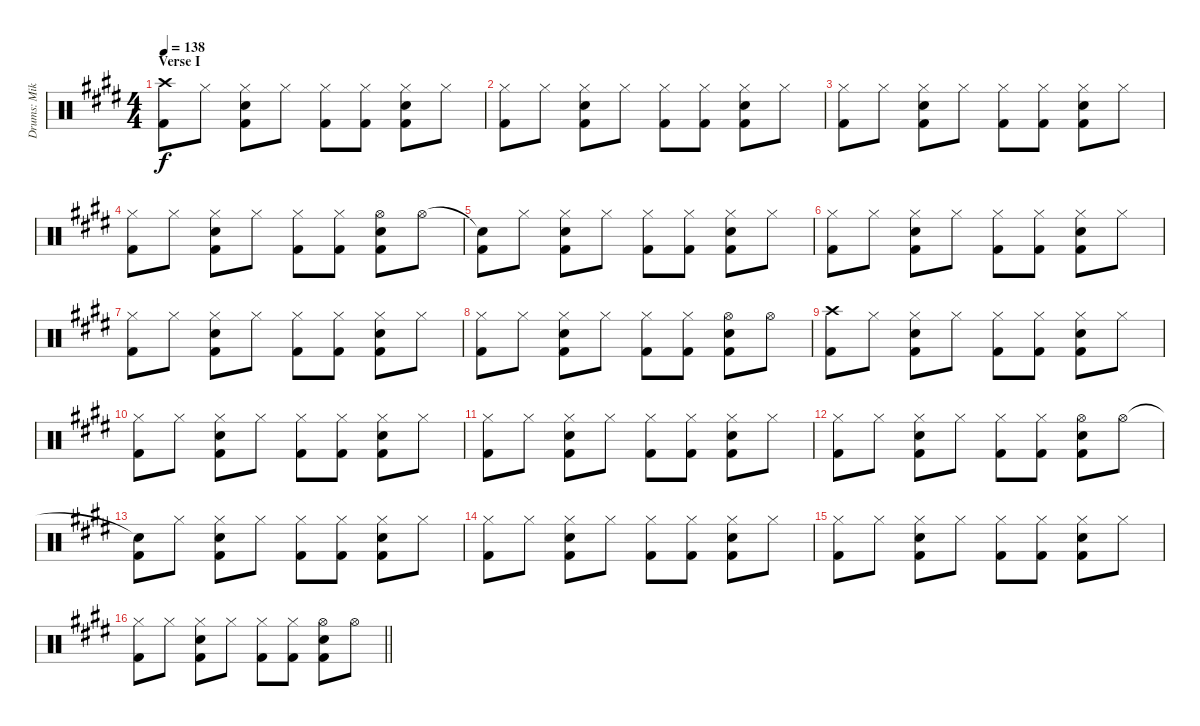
\track ("Drums: Mike" "Drums: Mik") {instrument percussion}
\staff {score}
\articulation defaults
\ts (4 4)
\section ("" "Verse I")
\tempo 138
\clef neutral
\ks e
("Crash high (hit)" "Kick (hit) 2").8{dy f} "Hi-Hat (closed)".8 ("Hi-Hat (closed)" "Electric Snare (hit)" "Kick (hit) 2").8 "Hi-Hat (closed)".8 ("Hi-Hat (closed)" "Kick (hit) 2").8 ("Hi-Hat (closed)" "Kick (hit) 2").8 ("Hi-Hat (closed)" "Electric Snare (hit)" "Kick (hit) 2").8 "Hi-Hat (closed)".8 |
("Hi-Hat (closed)" "Kick (hit) 2").8 "Hi-Hat (closed)".8 ("Hi-Hat (closed)" "Electric Snare (hit)" "Kick (hit) 2").8 "Hi-Hat (closed)".8 ("Hi-Hat (closed)" "Kick (hit) 2").8 ("Hi-Hat (closed)" "Kick (hit) 2").8 ("Hi-Hat (closed)" "Electric Snare (hit)" "Kick (hit) 2").8 "Hi-Hat (closed)".8 |
("Hi-Hat (closed)" "Kick (hit) 2").8 "Hi-Hat (closed)".8 ("Hi-Hat (closed)" "Electric Snare (hit)" "Kick (hit) 2").8 "Hi-Hat (closed)".8 ("Hi-Hat (closed)" "Kick (hit) 2").8 ("Hi-Hat (closed)" "Kick (hit) 2").8 ("Hi-Hat (closed)" "Electric Snare (hit)" "Kick (hit) 2").8 "Hi-Hat (closed)".8 |
("Hi-Hat (closed)" "Kick (hit) 2").8 "Hi-Hat (closed)".8 ("Hi-Hat (closed)" "Electric Snare (hit)" "Kick (hit) 2").8 "Hi-Hat (closed)".8 ("Hi-Hat (closed)" "Kick (hit) 2").8 ("Hi-Hat (closed)" "Kick (hit) 2").8 ("Hi-Hat (open)" "Electric Snare (hit)" "Kick (hit) 2").8 "Hi-Hat (open)".8 |
("Snare (hit)"{t} "Kick (hit) 2").8 "Hi-Hat (closed)".8 ("Hi-Hat (closed)" "Electric Snare (hit)" "Kick (hit) 2").8 "Hi-Hat (closed)".8 ("Hi-Hat (closed)" "Kick (hit) 2").8 ("Hi-Hat (closed)" "Kick (hit) 2").8 ("Hi-Hat (closed)" "Electric Snare (hit)" "Kick (hit) 2").8 "Hi-Hat (closed)".8 |
("Hi-Hat (closed)" "Kick (hit) 2").8 "Hi-Hat (closed)".8 ("Hi-Hat (closed)" "Electric Snare (hit)" "Kick (hit) 2").8 "Hi-Hat (closed)".8 ("Hi-Hat (closed)" "Kick (hit) 2").8 ("Hi-Hat (closed)" "Kick (hit) 2").8 ("Hi-Hat (closed)" "Electric Snare (hit)" "Kick (hit) 2").8 "Hi-Hat (closed)".8 |
("Hi-Hat (closed)" "Kick (hit) 2").8 "Hi-Hat (closed)".8 ("Hi-Hat (closed)" "Electric Snare (hit)" "Kick (hit) 2").8 "Hi-Hat (closed)".8 ("Hi-Hat (closed)" "Kick (hit) 2").8 ("Hi-Hat (closed)" "Kick (hit) 2").8 ("Hi-Hat (closed)" "Electric Snare (hit)" "Kick (hit) 2").8 "Hi-Hat (closed)".8 |
("Hi-Hat (closed)" "Kick (hit) 2").8 "Hi-Hat (closed)".8 ("Hi-Hat (closed)" "Electric Snare (hit)" "Kick (hit) 2").8 "Hi-Hat (closed)".8 ("Hi-Hat (closed)" "Kick (hit) 2").8 ("Hi-Hat (closed)" "Kick (hit) 2").8 ("Hi-Hat (open)" "Electric Snare (hit)" "Kick (hit) 2").8 "Hi-Hat (open)".8 |
("Crash high (hit)" "Kick (hit) 2").8 "Hi-Hat (closed)".8 ("Hi-Hat (closed)" "Electric Snare (hit)" "Kick (hit) 2").8 "Hi-Hat (closed)".8 ("Hi-Hat (closed)" "Kick (hit) 2").8 ("Hi-Hat (closed)" "Kick (hit) 2").8 ("Hi-Hat (closed)" "Electric Snare (hit)" "Kick (hit) 2").8 "Hi-Hat (closed)".8 |
("Hi-Hat (closed)" "Kick (hit) 2").8 "Hi-Hat (closed)".8 ("Hi-Hat (closed)" "Electric Snare (hit)" "Kick (hit) 2").8 "Hi-Hat (closed)".8 ("Hi-Hat (closed)" "Kick (hit) 2").8 ("Hi-Hat (closed)" "Kick (hit) 2").8 ("Hi-Hat (closed)" "Electric Snare (hit)" "Kick (hit) 2").8 "Hi-Hat (closed)".8 |
("Hi-Hat (closed)" "Kick (hit) 2").8 "Hi-Hat (closed)".8 ("Hi-Hat (closed)" "Electric Snare (hit)" "Kick (hit) 2").8 "Hi-Hat (closed)".8 ("Hi-Hat (closed)" "Kick (hit) 2").8 ("Hi-Hat (closed)" "Kick (hit) 2").8 ("Hi-Hat (closed)" "Electric Snare (hit)" "Kick (hit) 2").8 "Hi-Hat (closed)".8 |
("Hi-Hat (closed)" "Kick (hit) 2").8 "Hi-Hat (closed)".8 ("Hi-Hat (closed)" "Electric Snare (hit)" "Kick (hit) 2").8 "Hi-Hat (closed)".8 ("Hi-Hat (closed)" "Kick (hit) 2").8 ("Hi-Hat (closed)" "Kick (hit) 2").8 ("Hi-Hat (open)" "Electric Snare (hit)" "Kick (hit) 2").8 "Hi-Hat (open)".8 |
("Snare (hit)"{t} "Kick (hit) 2").8 "Hi-Hat (closed)".8 ("Hi-Hat (closed)" "Electric Snare (hit)" "Kick (hit) 2").8 "Hi-Hat (closed)".8 ("Hi-Hat (closed)" "Kick (hit) 2").8 ("Hi-Hat (closed)" "Kick (hit) 2").8 ("Hi-Hat (closed)" "Electric Snare (hit)" "Kick (hit) 2").8 "Hi-Hat (closed)".8 |
("Hi-Hat (closed)" "Kick (hit) 2").8 "Hi-Hat (closed)".8 ("Hi-Hat (closed)" "Electric Snare (hit)" "Kick (hit) 2").8 "Hi-Hat (closed)".8 ("Hi-Hat (closed)" "Kick (hit) 2").8 ("Hi-Hat (closed)" "Kick (hit) 2").8 ("Hi-Hat (closed)" "Electric Snare (hit)" "Kick (hit) 2").8 "Hi-Hat (closed)".8 |
("Hi-Hat (closed)" "Kick (hit) 2").8 "Hi-Hat (closed)".8 ("Hi-Hat (closed)" "Electric Snare (hit)" "Kick (hit) 2").8 "Hi-Hat (closed)".8 ("Hi-Hat (closed)" "Kick (hit) 2").8 ("Hi-Hat (closed)" "Kick (hit) 2").8 ("Hi-Hat (closed)" "Electric Snare (hit)" "Kick (hit) 2").8 "Hi-Hat (closed)".8 |
\barLineRight lightlight
("Hi-Hat (closed)" "Kick (hit) 2").8 "Hi-Hat (closed)".8 ("Hi-Hat (closed)" "Electric Snare (hit)" "Kick (hit) 2").8 "Hi-Hat (closed)".8 ("Hi-Hat (closed)" "Kick (hit) 2").8 ("Hi-Hat (closed)" "Kick (hit) 2").8 ("Hi-Hat (open)" "Electric Snare (hit)" "Kick (hit) 2").8 "Hi-Hat (open)".8
